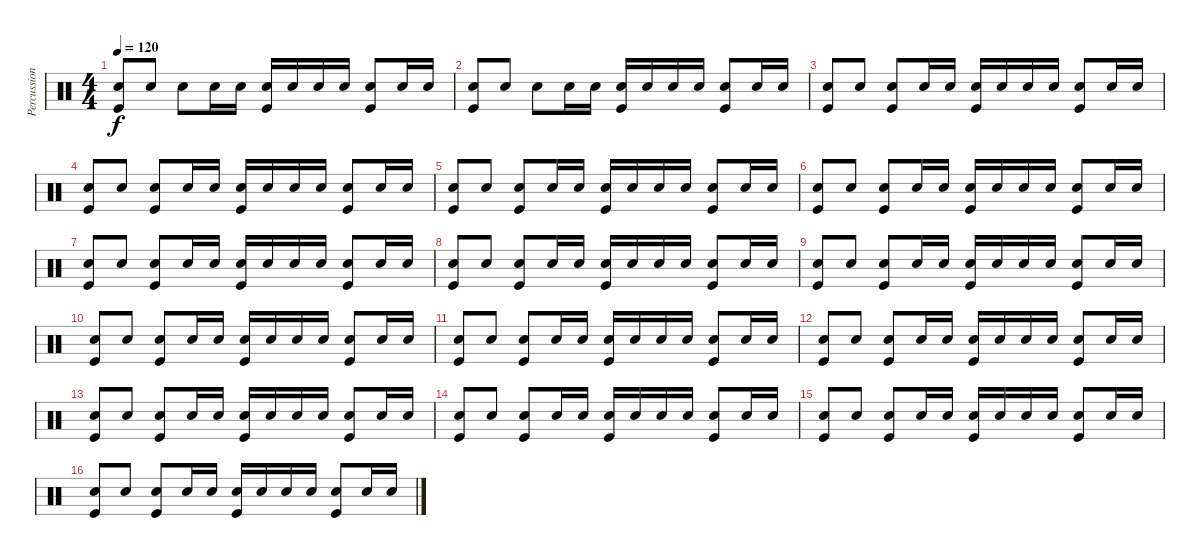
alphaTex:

\track ("Percussion" "Percussion") {instrument percussion}
\staff {score}
\articulation defaults
\ts (4 4)
\tempo 120
\clef neutral
\ks c
("Snare (hit) 2" "Kick (hit)").8{dy f volume 3} "Snare (hit) 2".8{volume 3} "Snare (hit) 2".8{volume 3} "Snare (hit) 2".16{volume 3} "Snare (hit) 2".16{volume 3} ("Snare (hit) 2" "Kick (hit)").16{volume 3} "Snare (hit) 2".16{volume 3} "Snare (hit) 2".16{volume 3} "Snare (hit) 2".16{volume 3} ("Snare (hit) 2" "Kick (hit)").8{volume 3} "Snare (hit) 2".16{volume 3} "Snare (hit) 2".16{volume 3} |
("Snare (hit) 2" "Kick (hit)").8{volume 3} "Snare (hit) 2".8{volume 3} "Snare (hit) 2".8{volume 3} "Snare (hit) 2".16{volume 3} "Snare (hit) 2".16{volume 3} ("Snare (hit) 2" "Kick (hit)").16{volume 3} "Snare (hit) 2".16{volume 3} "Snare (hit) 2".16{volume 3} "Snare (hit) 2".16{volume 3} ("Snare (hit) 2" "Kick (hit)").8{volume 3} "Snare (hit) 2".16{volume 3} "Snare (hit) 2".16{volume 3} |
("Snare (hit) 2" "Kick (hit)").8{volume 5} "Snare (hit) 2".8{volume 5} ("Snare (hit) 2" "Kick (hit)").8{volume 5} "Snare (hit) 2".16{volume 5} "Snare (hit) 2".16{volume 5} ("Snare (hit) 2" "Kick (hit)").16{volume 5} "Snare (hit) 2".16{volume 5} "Snare (hit) 2".16{volume 5} "Snare (hit) 2".16{volume 5} ("Snare (hit) 2" "Kick (hit)").8{volume 5} "Snare (hit) 2".16{volume 5} "Snare (hit) 2".16{volume 5} |
("Snare (hit) 2" "Kick (hit)").8{volume 6} "Snare (hit) 2".8{volume 6} ("Snare (hit) 2" "Kick (hit)").8{volume 6} "Snare (hit) 2".16{volume 6} "Snare (hit) 2".16{volume 6} ("Snare (hit) 2" "Kick (hit)").16{volume 8} "Snare (hit) 2".16{volume 8} "Snare (hit) 2".16{volume 8} "Snare (hit) 2".16{volume 8} ("Snare (hit) 2" "Kick (hit)").8{volume 8} "Snare (hit) 2".16{volume 8} "Snare (hit) 2".16{volume 8} |
("Snare (hit) 2" "Kick (hit)").8{volume 8} "Snare (hit) 2".8{volume 8} ("Snare (hit) 2" "Kick (hit)").8{volume 8} "Snare (hit) 2".16{volume 8} "Snare (hit) 2".16{volume 8} ("Snare (hit) 2" "Kick (hit)").16{volume 8} "Snare (hit) 2".16{volume 8} "Snare (hit) 2".16{volume 8} "Snare (hit) 2".16{volume 8} ("Snare (hit) 2" "Kick (hit)").8{volume 8} "Snare (hit) 2".16{volume 8} "Snare (hit) 2".16{volume 8} |
("Snare (hit) 2" "Kick (hit)").8{volume 11} "Snare (hit) 2".8{volume 11} ("Snare (hit) 2" "Kick (hit)").8{volume 11} "Snare (hit) 2".16{volume 11} "Snare (hit) 2".16{volume 11} ("Snare (hit) 2" "Kick (hit)").16{volume 12} "Snare (hit) 2".16{volume 12} "Snare (hit) 2".16{volume 12} "Snare (hit) 2".16{volume 12} ("Snare (hit) 2" "Kick (hit)").8{volume 12} "Snare (hit) 2".16{volume 12} "Snare (hit) 2".16{volume 12} |
("Snare (hit) 2" "Kick (hit)").8 "Snare (hit) 2".8 ("Snare (hit) 2" "Kick (hit)").8 "Snare (hit) 2".16 "Snare (hit) 2".16 ("Snare (hit) 2" "Kick (hit)").16 "Snare (hit) 2".16 "Snare (hit) 2".16 "Snare (hit) 2".16 ("Snare (hit) 2" "Kick (hit)").8 "Snare (hit) 2".16 "Snare (hit) 2".16 |
("Snare (hit) 2" "Kick (hit)").8 "Snare (hit) 2".8 ("Snare (hit) 2" "Kick (hit)").8 "Snare (hit) 2".16 "Snare (hit) 2".16 ("Snare (hit) 2" "Kick (hit)").16 "Snare (hit) 2".16 "Snare (hit) 2".16 "Snare (hit) 2".16 ("Snare (hit) 2" "Kick (hit)").8 "Snare (hit) 2".16 "Snare (hit) 2".16 |
("Snare (hit) 2" "Kick (hit)").8 "Snare (hit) 2".8 ("Snare (hit) 2" "Kick (hit)").8 "Snare (hit) 2".16 "Snare (hit) 2".16 ("Snare (hit) 2" "Kick (hit)").16 "Snare (hit) 2".16 "Snare (hit) 2".16 "Snare (hit) 2".16 ("Snare (hit) 2" "Kick (hit)").8 "Snare (hit) 2".16 "Snare (hit) 2".16 |
("Snare (hit) 2" "Kick (hit)").8 "Snare (hit) 2".8 ("Snare (hit) 2" "Kick (hit)").8 "Snare (hit) 2".16 "Snare (hit) 2".16 ("Snare (hit) 2" "Kick (hit)").16 "Snare (hit) 2".16 "Snare (hit) 2".16 "Snare (hit) 2".16 ("Snare (hit) 2" "Kick (hit)").8 "Snare (hit) 2".16 "Snare (hit) 2".16 |
("Snare (hit) 2" "Kick (hit)").8 "Snare (hit) 2".8 ("Snare (hit) 2" "Kick (hit)").8 "Snare (hit) 2".16 "Snare (hit) 2".16 ("Snare (hit) 2" "Kick (hit)").16 "Snare (hit) 2".16 "Snare (hit) 2".16 "Snare (hit) 2".16 ("Snare (hit) 2" "Kick (hit)").8 "Snare (hit) 2".16 "Snare (hit) 2".16 |
("Snare (hit) 2" "Kick (hit)").8 "Snare (hit) 2".8 ("Snare (hit) 2" "Kick (hit)").8 "Snare (hit) 2".16 "Snare (hit) 2".16 ("Snare (hit) 2" "Kick (hit)").16 "Snare (hit) 2".16 "Snare (hit) 2".16 "Snare (hit) 2".16 ("Snare (hit) 2" "Kick (hit)").8 "Snare (hit) 2".16 "Snare (hit) 2".16 |
("Snare (hit) 2" "Kick (hit)").8 "Snare (hit) 2".8 ("Snare (hit) 2" "Kick (hit)").8 "Snare (hit) 2".16 "Snare (hit) 2".16 ("Snare (hit) 2" "Kick (hit)").16 "Snare (hit) 2".16 "Snare (hit) 2".16 "Snare (hit) 2".16 ("Snare (hit) 2" "Kick (hit)").8 "Snare (hit) 2".16 "Snare (hit) 2".16 |
("Snare (hit) 2" "Kick (hit)").8 "Snare (hit) 2".8 ("Snare (hit) 2" "Kick (hit)").8 "Snare (hit) 2".16 "Snare (hit) 2".16 ("Snare (hit) 2" "Kick (hit)").16 "Snare (hit) 2".16 "Snare (hit) 2".16 "Snare (hit) 2".16 ("Snare (hit) 2" "Kick (hit)").8 "Snare (hit) 2".16 "Snare (hit) 2".16 |
("Snare (hit) 2" "Kick (hit)").8 "Snare (hit) 2".8 ("Snare (hit) 2" "Kick (hit)").8 "Snare (hit) 2".16 "Snare (hit) 2".16 ("Snare (hit) 2" "Kick (hit)").16 "Snare (hit) 2".16 "Snare (hit) 2".16 "Snare (hit) 2".16 ("Snare (hit) 2" "Kick (hit)").8 "Snare (hit) 2".16 "Snare (hit) 2".16 |
("Snare (hit) 2" "Kick (hit)").8 "Snare (hit) 2".8 ("Snare (hit) 2" "Kick (hit)").8 "Snare (hit) 2".16 "Snare (hit) 2".16 ("Snare (hit) 2" "Kick (hit)").16 "Snare (hit) 2".16 "Snare (hit) 2".16 "Snare (hit) 2".16 ("Snare (hit) 2" "Kick (hit)").8 "Snare (hit) 2".16 "Snare (hit) 2".16
